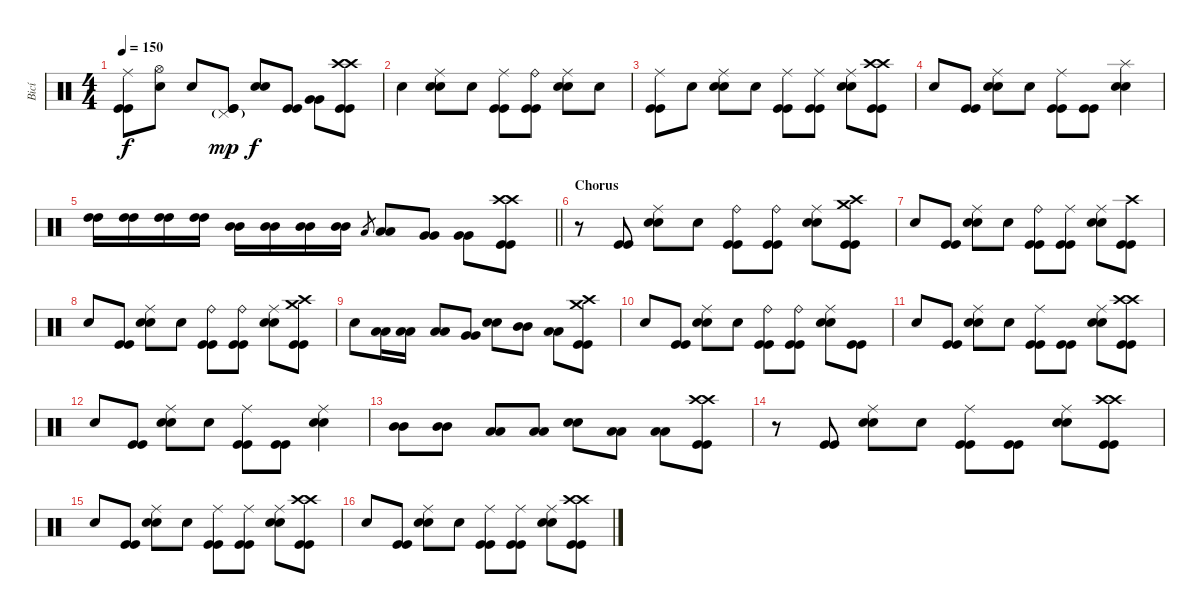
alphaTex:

\track ("Bicí" "Bicí") {instrument percussion}
\staff {score}
\articulation defaults
\ts (4 4)
\tempo 150
\clef neutral
\ks c
("Ride (middle)" "Kick (hit)" "Kick (hit)").8{dy f} ("Hi-Hat (open)" "Snare (hit)").8 "Snare (hit)".8 ("Pedal Hi-Hat (hit)"{g} "Kick (hit)" "Kick (hit)").8{dy mp} ("Electric Snare (hit)" "Electric Snare (hit)").8{dy f} ("Kick (hit)" "Kick (hit)").8 ("Very Low Tom (hit)" "Very Low Tom (hit)").8 ("Crash high (hit)" "Crash high (hit)" "Kick (hit)" "Kick (hit)").8 |
"Snare (hit)".4 ("Ride (middle)" "Electric Snare (hit)" "Electric Snare (hit)").8 "Snare (hit)".8 ("Ride (middle)" "Kick (hit)" "Kick (hit)").8 ("Ride (bell)" "Kick (hit)" "Kick (hit)").8 ("Ride (middle)" "Electric Snare (hit)" "Electric Snare (hit)").8 "Snare (hit)".8 |
("Ride (middle)" "Kick (hit)" "Kick (hit)").8 "Snare (hit)".8 ("Ride (middle)" "Electric Snare (hit)" "Electric Snare (hit)").8 "Snare (hit)".8 ("Ride (middle)" "Kick (hit)" "Kick (hit)").8 ("Ride (middle)" "Kick (hit)" "Kick (hit)").8 ("Ride (middle)" "Electric Snare (hit)" "Electric Snare (hit)").8 ("Crash high (hit)" "Crash high (hit)" "Kick (hit)" "Kick (hit)").8 |
"Snare (hit)".8 ("Kick (hit)" "Kick (hit)").8 ("Ride (middle)" "Electric Snare (hit)" "Electric Snare (hit)").8 "Snare (hit)".8 ("Ride (middle)" "Kick (hit)" "Kick (hit)").8 ("Kick (hit)" "Kick (hit)").8 ("Splash (hit)" "Electric Snare (hit)" "Electric Snare (hit)").4 |
\barLineRight lightlight
("High Tom (hit)" "High Tom (hit)").16 ("High Tom (hit)" "High Tom (hit)").16 ("High Tom (hit)" "High Tom (hit)").16 ("High Tom (hit)" "High Tom (hit)").16 ("Mid Tom (hit)" "Mid Tom (hit)").16 ("Mid Tom (hit)" "Mid Tom (hit)").16 ("Mid Tom (hit)" "Mid Tom (hit)").16 ("Mid Tom (hit)" "Mid Tom (hit)").16 "Low Tom (hit)".8{gr} ("Low Tom (hit)" "Low Tom (hit)").8 ("Very Low Tom (hit)" "Very Low Tom (hit)").8 ("Very Low Tom (hit)" "Very Low Tom (hit)").8 ("Crash high (hit)" "Crash high (hit)" "Kick (hit)" "Kick (hit)").8 |
\section ("" "Chorus")
r.8 ("Kick (hit)" "Kick (hit)").8 ("Ride (middle)" "Electric Snare (hit)" "Electric Snare (hit)").8 "Snare (hit)".8 ("Ride (bell)" "Kick (hit)" "Kick (hit)").8 ("Ride (bell)" "Kick (hit)" "Kick (hit)").8 ("Ride (middle)" "Electric Snare (hit)" "Electric Snare (hit)").8 ("Crash high (hit)" "Crash medium (hit)" "Kick (hit)" "Kick (hit)").8 |
"Snare (hit)".8 ("Kick (hit)" "Kick (hit)").8 ("Ride (middle)" "Electric Snare (hit)" "Electric Snare (hit)").8 "Snare (hit)".8 ("Ride (bell)" "Kick (hit)" "Kick (hit)").8 ("Ride (middle)" "Kick (hit)" "Kick (hit)").8 ("Ride (middle)" "Electric Snare (hit)" "Electric Snare (hit)").8 ("Crash high (hit)" "Kick (hit)" "Kick (hit)").8 |
"Snare (hit)".8 ("Kick (hit)" "Kick (hit)").8 ("Ride (middle)" "Electric Snare (hit)" "Electric Snare (hit)").8 "Snare (hit)".8 ("Ride (bell)" "Kick (hit)" "Kick (hit)").8 ("Ride (bell)" "Kick (hit)" "Kick (hit)").8 ("Ride (middle)" "Electric Snare (hit)" "Electric Snare (hit)").8 ("Crash high (hit)" "Crash medium (hit)" "Kick (hit)" "Kick (hit)").8 |
"Snare (hit)".8 ("Low Tom (hit)" "Low Tom (hit)").16 ("Low Tom (hit)" "Low Tom (hit)").16 ("Low Tom (hit)" "Low Tom (hit)").8 ("Very Low Tom (hit)" "Very Low Tom (hit)").8 ("Electric Snare (hit)" "Electric Snare (hit)").8 ("Mid Tom (hit)" "Mid Tom (hit)").8 ("Low Tom (hit)" "Low Tom (hit)").8 ("Crash high (hit)" "Crash medium (hit)" "Kick (hit)" "Kick (hit)").8 |
"Snare (hit)".8 ("Kick (hit)" "Kick (hit)").8 ("Ride (middle)" "Electric Snare (hit)" "Electric Snare (hit)").8 "Snare (hit)".8 ("Ride (bell)" "Kick (hit)" "Kick (hit)").8 ("Ride (bell)" "Kick (hit)" "Kick (hit)").8 ("Ride (middle)" "Electric Snare (hit)" "Electric Snare (hit)").8 ("Kick (hit)" "Kick (hit)").8 |
"Snare (hit)".8 ("Kick (hit)" "Kick (hit)").8 ("Ride (middle)" "Electric Snare (hit)" "Electric Snare (hit)").8 "Snare (hit)".8 ("Ride (middle)" "Kick (hit)" "Kick (hit)").8 ("Kick (hit)" "Kick (hit)").8 ("Ride (middle)" "Electric Snare (hit)" "Electric Snare (hit)").8 ("Crash high (hit)" "Crash high (hit)" "Kick (hit)" "Kick (hit)").8 |
"Snare (hit)".8 ("Kick (hit)" "Kick (hit)").8 ("Ride (middle)" "Electric Snare (hit)" "Electric Snare (hit)").8 "Snare (hit)".8 ("Ride (middle)" "Kick (hit)" "Kick (hit)").8 ("Kick (hit)" "Kick (hit)").8 ("Ride (middle)" "Electric Snare (hit)" "Electric Snare (hit)").4 |
("Mid Tom (hit)" "Mid Tom (hit)").8 ("Mid Tom (hit)" "Mid Tom (hit)").8 ("Low Tom (hit)" "Low Tom (hit)").8 ("Low Tom (hit)" "Low Tom (hit)").8 ("Electric Snare (hit)" "Electric Snare (hit)").8 ("Low Floor Tom (hit)" "Low Floor Tom (hit)").8 ("Low Floor Tom (hit)" "Low Floor Tom (hit)").8 ("Crash high (hit)" "Crash high (hit)" "Kick (hit)" "Kick (hit)").8 |
r.8 ("Kick (hit)" "Kick (hit)").8 ("Ride (middle)" "Electric Snare (hit)" "Electric Snare (hit)").8 "Snare (hit)".8 ("Ride (middle)" "Kick (hit)" "Kick (hit)").8 ("Kick (hit)" "Kick (hit)").8 ("Ride (middle)" "Electric Snare (hit)" "Electric Snare (hit)").8 ("Crash high (hit)" "Crash high (hit)" "Kick (hit)" "Kick (hit)").8 |
"Snare (hit)".8 ("Kick (hit)" "Kick (hit)").8 ("Ride (middle)" "Electric Snare (hit)" "Electric Snare (hit)").8 "Snare (hit)".8 ("Ride (middle)" "Kick (hit)" "Kick (hit)").8 ("Ride (middle)" "Kick (hit)" "Kick (hit)").8 ("Ride (middle)" "Electric Snare (hit)" "Electric Snare (hit)").8 ("Crash high (hit)" "Crash high (hit)" "Kick (hit)" "Kick (hit)").8 |
"Snare (hit)".8 ("Kick (hit)" "Kick (hit)").8 ("Ride (middle)" "Electric Snare (hit)" "Electric Snare (hit)").8 "Snare (hit)".8 ("Ride (middle)" "Kick (hit)" "Kick (hit)").8 ("Ride (middle)" "Kick (hit)" "Kick (hit)").8 ("Ride (middle)" "Electric Snare (hit)" "Electric Snare (hit)").8 ("Crash high (hit)" "Crash high (hit)" "Kick (hit)" "Kick (hit)").8
